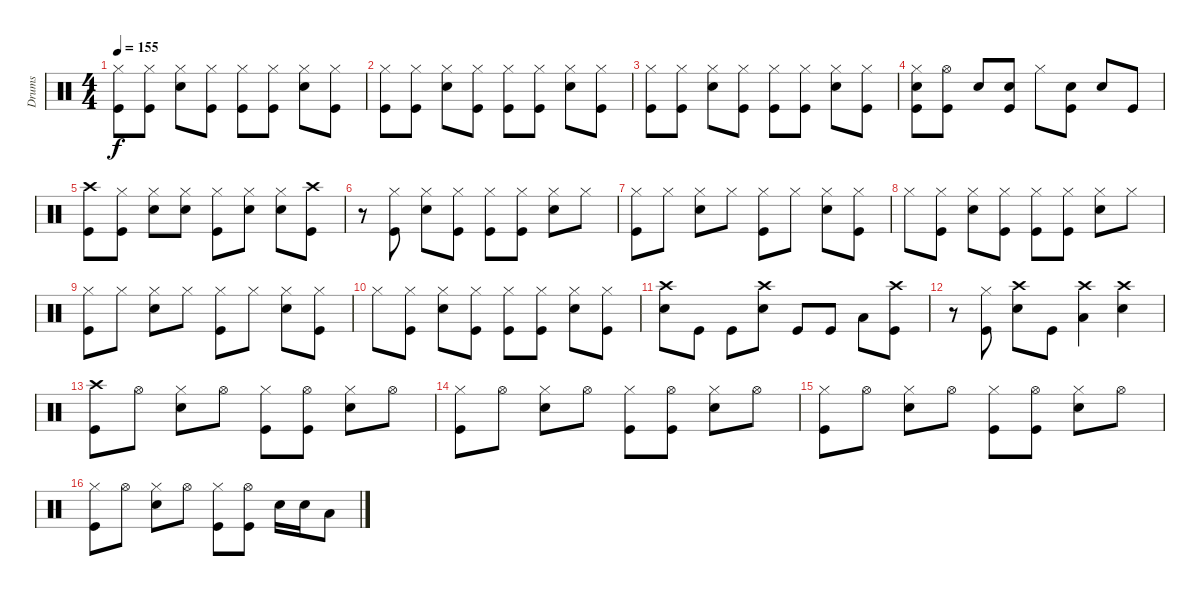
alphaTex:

\track ("Drums" "Drums") {instrument percussion}
\staff {score}
\articulation defaults
\ts (4 4)
\tempo 155
\clef neutral
\ks c
("Hi-Hat (closed)" "Kick (hit)").8{dy f} ("Hi-Hat (closed)" "Kick (hit)").8 ("Hi-Hat (closed)" "Snare (hit) 2").8 ("Hi-Hat (closed)" "Kick (hit)").8 ("Hi-Hat (closed)" "Kick (hit)").8 ("Hi-Hat (closed)" "Kick (hit)").8 ("Hi-Hat (closed)" "Snare (hit) 2").8 ("Hi-Hat (closed)" "Kick (hit)").8 |
("Hi-Hat (closed)" "Kick (hit)").8 ("Hi-Hat (closed)" "Kick (hit)").8 ("Hi-Hat (closed)" "Snare (hit) 2").8 ("Hi-Hat (closed)" "Kick (hit)").8 ("Hi-Hat (closed)" "Kick (hit)").8 ("Hi-Hat (closed)" "Kick (hit)").8 ("Hi-Hat (closed)" "Snare (hit) 2").8 ("Hi-Hat (closed)" "Kick (hit)").8 |
("Hi-Hat (closed)" "Kick (hit)").8 ("Hi-Hat (closed)" "Kick (hit)").8 ("Hi-Hat (closed)" "Snare (hit) 2").8 ("Hi-Hat (closed)" "Kick (hit)").8 ("Hi-Hat (closed)" "Kick (hit)").8 ("Hi-Hat (closed)" "Kick (hit)").8 ("Hi-Hat (closed)" "Snare (hit) 2").8 ("Hi-Hat (closed)" "Kick (hit)").8 |
("Hi-Hat (closed)" "Snare (hit) 2" "Kick (hit)").8 ("Hi-Hat (open)" "Kick (hit)").8 "Snare (hit) 2".8 ("Snare (hit) 2" "Kick (hit)").8 "Hi-Hat (closed)".8 ("Snare (hit) 2" "Kick (hit)").8 "Snare (hit) 2".8 "Kick (hit)".8 |
("Crash high (hit)" "Kick (hit)").8 ("Hi-Hat (closed)" "Kick (hit)").8 ("Hi-Hat (closed)" "Snare (hit) 2").8 ("Hi-Hat (closed)" "Snare (hit) 2").8 ("Hi-Hat (closed)" "Kick (hit)").8 ("Hi-Hat (closed)" "Snare (hit) 2").8 ("Hi-Hat (closed)" "Snare (hit) 2").8 ("Crash high (hit)" "Kick (hit)").8 |
r.8 ("Hi-Hat (closed)" "Kick (hit)").8 ("Hi-Hat (closed)" "Snare (hit) 2").8 ("Hi-Hat (closed)" "Kick (hit)").8 ("Hi-Hat (closed)" "Kick (hit)").8 ("Hi-Hat (closed)" "Kick (hit)").8 ("Hi-Hat (closed)" "Snare (hit) 2").8 "Hi-Hat (closed)".8 |
("Hi-Hat (closed)" "Kick (hit)").8 "Hi-Hat (closed)".8 ("Hi-Hat (closed)" "Snare (hit) 2").8 "Hi-Hat (closed)".8 ("Hi-Hat (closed)" "Kick (hit)").8 "Hi-Hat (closed)".8 ("Hi-Hat (closed)" "Snare (hit) 2").8 ("Hi-Hat (closed)" "Kick (hit)").8 |
"Hi-Hat (closed)".8 ("Hi-Hat (closed)" "Kick (hit)").8 ("Hi-Hat (closed)" "Snare (hit) 2").8 ("Hi-Hat (closed)" "Kick (hit)").8 ("Hi-Hat (closed)" "Kick (hit)").8 ("Hi-Hat (closed)" "Kick (hit)").8 ("Hi-Hat (closed)" "Snare (hit) 2").8 "Hi-Hat (closed)".8 |
("Hi-Hat (closed)" "Kick (hit)").8 "Hi-Hat (closed)".8 ("Hi-Hat (closed)" "Snare (hit) 2").8 "Hi-Hat (closed)".8 ("Hi-Hat (closed)" "Kick (hit)").8 "Hi-Hat (closed)".8 ("Hi-Hat (closed)" "Snare (hit) 2").8 ("Hi-Hat (closed)" "Kick (hit)").8 |
"Hi-Hat (closed)".8 ("Hi-Hat (closed)" "Kick (hit)").8 ("Hi-Hat (closed)" "Snare (hit) 2").8 ("Hi-Hat (closed)" "Kick (hit)").8 ("Hi-Hat (closed)" "Kick (hit)").8 ("Hi-Hat (closed)" "Kick (hit)").8 ("Hi-Hat (closed)" "Snare (hit) 2").8 ("Hi-Hat (closed)" "Kick (hit)").8 |
("Crash high (hit)" "Snare (hit) 2").8 "Kick (hit)".8 "Kick (hit)".8 ("Crash high (hit)" "Snare (hit) 2").8 "Kick (hit)".8 "Kick (hit)".8 "Low Floor Tom (hit)".8 ("Crash high (hit)" "Kick (hit)").8 |
r.8 ("Hi-Hat (closed)" "Kick (hit)").8 ("Crash high (hit)" "Snare (hit) 2").8 "Kick (hit)".8 ("Crash high (hit)" "Low Floor Tom (hit)").4 ("Crash high (hit)" "Snare (hit) 2").4 |
("Crash high (hit)" "Kick (hit)").8 "Hi-Hat (open)".8 ("Hi-Hat (closed)" "Snare (hit) 2").8 "Hi-Hat (open)".8 ("Hi-Hat (closed)" "Kick (hit)").8 ("Hi-Hat (open)" "Kick (hit)").8 ("Hi-Hat (closed)" "Snare (hit) 2").8 "Hi-Hat (open)".8 |
("Hi-Hat (closed)" "Kick (hit)").8 "Hi-Hat (open)".8 ("Hi-Hat (closed)" "Snare (hit) 2").8 "Hi-Hat (open)".8 ("Hi-Hat (closed)" "Kick (hit)").8 ("Hi-Hat (open)" "Kick (hit)").8 ("Hi-Hat (closed)" "Snare (hit) 2").8 "Hi-Hat (open)".8 |
("Hi-Hat (closed)" "Kick (hit)").8 "Hi-Hat (open)".8 ("Hi-Hat (closed)" "Snare (hit) 2").8 "Hi-Hat (open)".8 ("Hi-Hat (closed)" "Kick (hit)").8 ("Hi-Hat (open)" "Kick (hit)").8 ("Hi-Hat (closed)" "Snare (hit) 2").8 "Hi-Hat (open)".8 |
("Hi-Hat (closed)" "Kick (hit)").8 "Hi-Hat (open)".8 ("Hi-Hat (closed)" "Snare (hit) 2").8 "Hi-Hat (open)".8 ("Hi-Hat (closed)" "Kick (hit)").8 ("Hi-Hat (open)" "Kick (hit)").8 "Snare (hit) 2".16 "Snare (hit) 2".16 "Low Floor Tom (hit)".8
